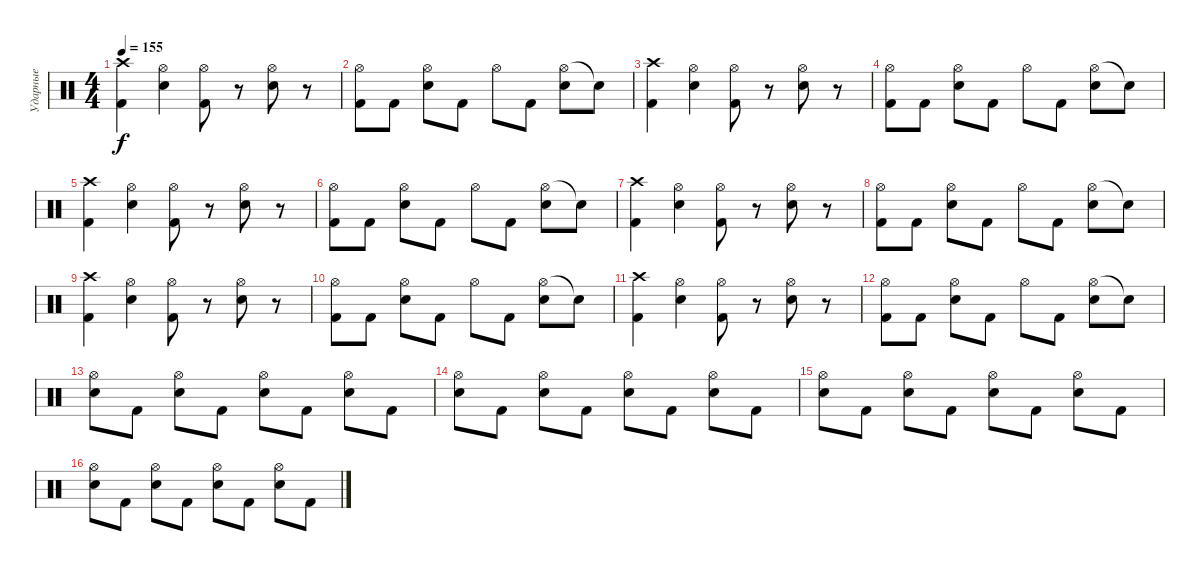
\track ("Ударные" "Ударные") {instrument percussion}
\staff {score}
\articulation defaults
\ts (4 4)
\tempo 155
\clef neutral
\ks c
("Crash high (hit)" "Kick (hit) 2").4{dy f} ("Hi-Hat (open)" "Electric Snare (hit)").4 ("Hi-Hat (open)" "Kick (hit) 2").8 r.8 ("Hi-Hat (open)" "Electric Snare (hit)").8 r.8 |
("Hi-Hat (open)" "Kick (hit) 2").8 "Kick (hit) 2".8 ("Hi-Hat (open)" "Electric Snare (hit)").8 "Kick (hit) 2".8 "Hi-Hat (open)".8 "Kick (hit) 2".8 ("Hi-Hat (open)" "Electric Snare (hit)").8 "Snare (hit)"{t}.8 |
("Crash high (hit)" "Kick (hit) 2").4 ("Hi-Hat (open)" "Electric Snare (hit)").4 ("Hi-Hat (open)" "Kick (hit) 2").8 r.8 ("Hi-Hat (open)" "Electric Snare (hit)").8 r.8 |
("Hi-Hat (open)" "Kick (hit) 2").8 "Kick (hit) 2".8 ("Hi-Hat (open)" "Electric Snare (hit)").8 "Kick (hit) 2".8 "Hi-Hat (open)".8 "Kick (hit) 2".8 ("Hi-Hat (open)" "Electric Snare (hit)").8 "Snare (hit)"{t}.8 |
("Crash high (hit)" "Kick (hit) 2").4 ("Hi-Hat (open)" "Electric Snare (hit)").4 ("Hi-Hat (open)" "Kick (hit) 2").8 r.8 ("Hi-Hat (open)" "Electric Snare (hit)").8 r.8 |
("Hi-Hat (open)" "Kick (hit) 2").8 "Kick (hit) 2".8 ("Hi-Hat (open)" "Electric Snare (hit)").8 "Kick (hit) 2".8 "Hi-Hat (open)".8 "Kick (hit) 2".8 ("Hi-Hat (open)" "Electric Snare (hit)").8 "Snare (hit)"{t}.8 |
("Crash high (hit)" "Kick (hit) 2").4 ("Hi-Hat (open)" "Electric Snare (hit)").4 ("Hi-Hat (open)" "Kick (hit) 2").8 r.8 ("Hi-Hat (open)" "Electric Snare (hit)").8 r.8 |
("Hi-Hat (open)" "Kick (hit) 2").8 "Kick (hit) 2".8 ("Hi-Hat (open)" "Electric Snare (hit)").8 "Kick (hit) 2".8 "Hi-Hat (open)".8 "Kick (hit) 2".8 ("Hi-Hat (open)" "Electric Snare (hit)").8 "Snare (hit)"{t}.8 |
("Crash high (hit)" "Kick (hit) 2").4 ("Hi-Hat (open)" "Electric Snare (hit)").4 ("Hi-Hat (open)" "Kick (hit) 2").8 r.8 ("Hi-Hat (open)" "Electric Snare (hit)").8 r.8 |
("Hi-Hat (open)" "Kick (hit) 2").8 "Kick (hit) 2".8 ("Hi-Hat (open)" "Electric Snare (hit)").8 "Kick (hit) 2".8 "Hi-Hat (open)".8 "Kick (hit) 2".8 ("Hi-Hat (open)" "Electric Snare (hit)").8 "Snare (hit)"{t}.8 |
("Crash high (hit)" "Kick (hit) 2").4 ("Hi-Hat (open)" "Electric Snare (hit)").4 ("Hi-Hat (open)" "Kick (hit) 2").8 r.8 ("Hi-Hat (open)" "Electric Snare (hit)").8 r.8 |
("Hi-Hat (open)" "Kick (hit) 2").8 "Kick (hit) 2".8 ("Hi-Hat (open)" "Electric Snare (hit)").8 "Kick (hit) 2".8 "Hi-Hat (open)".8 "Kick (hit) 2".8 ("Hi-Hat (open)" "Electric Snare (hit)").8 "Snare (hit)"{t}.8 |
("Hi-Hat (open)" "Electric Snare (hit)").8 "Kick (hit) 2".8 ("Hi-Hat (open)" "Electric Snare (hit)").8 "Kick (hit) 2".8 ("Hi-Hat (open)" "Electric Snare (hit)").8 "Kick (hit) 2".8 ("Hi-Hat (open)" "Electric Snare (hit)").8 "Kick (hit) 2".8 |
("Hi-Hat (open)" "Electric Snare (hit)").8 "Kick (hit) 2".8 ("Hi-Hat (open)" "Electric Snare (hit)").8 "Kick (hit) 2".8 ("Hi-Hat (open)" "Electric Snare (hit)").8 "Kick (hit) 2".8 ("Hi-Hat (open)" "Electric Snare (hit)").8 "Kick (hit) 2".8 |
("Hi-Hat (open)" "Electric Snare (hit)").8 "Kick (hit) 2".8 ("Hi-Hat (open)" "Electric Snare (hit)").8 "Kick (hit) 2".8 ("Hi-Hat (open)" "Electric Snare (hit)").8 "Kick (hit) 2".8 ("Hi-Hat (open)" "Electric Snare (hit)").8 "Kick (hit) 2".8 |
("Hi-Hat (open)" "Electric Snare (hit)").8 "Kick (hit) 2".8 ("Hi-Hat (open)" "Electric Snare (hit)").8 "Kick (hit) 2".8 ("Hi-Hat (open)" "Electric Snare (hit)").8 "Kick (hit) 2".8 ("Hi-Hat (open)" "Electric Snare (hit)").8 "Kick (hit) 2".8
